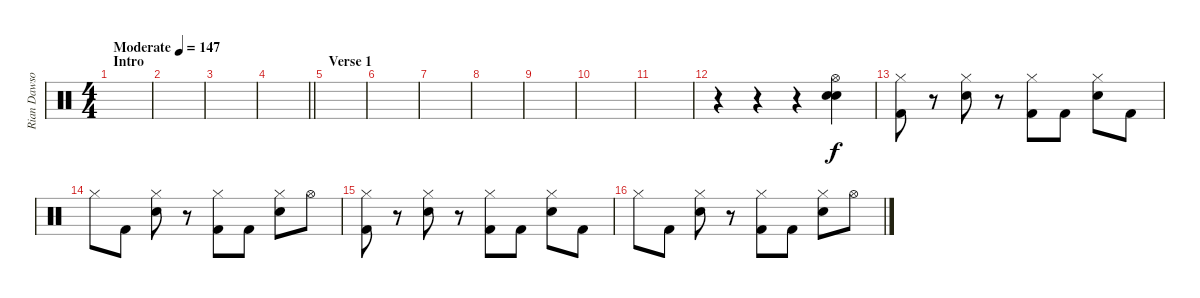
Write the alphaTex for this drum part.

\track ("Rian Dawson (Drums)" "Rian Dawso") {instrument percussion}
\staff {score}
\articulation defaults
\ts (4 4)
\section ("" "Intro")
\tempo (147 "Moderate")
\clef neutral
\ks c
|
|
|
\barLineRight lightlight
|
\section ("" "Verse 1")
|
|
|
|
|
|
|
r.4 r.4 r.4 ("Electric Snare (hit)" "Snare (hit) 2" "Hi-Hat (open)").4 |
("Hi-Hat (closed)" "Kick (hit) 2").8 r.8 ("Electric Snare (hit)" "Hi-Hat (closed)").8 r.8 ("Hi-Hat (closed)" "Kick (hit) 2").8 "Kick (hit) 2".8 ("Electric Snare (hit)" "Hi-Hat (closed)").8 "Kick (hit) 2".8 |
"Hi-Hat (closed)".8 "Kick (hit) 2".8 ("Electric Snare (hit)" "Hi-Hat (closed)").8 r.8 ("Hi-Hat (closed)" "Kick (hit) 2").8 "Kick (hit) 2".8 ("Electric Snare (hit)" "Hi-Hat (closed)").8 "Hi-Hat (open)".8 |
("Hi-Hat (closed)" "Kick (hit) 2").8 r.8 ("Electric Snare (hit)" "Hi-Hat (closed)").8 r.8 ("Hi-Hat (closed)" "Kick (hit) 2").8 "Kick (hit) 2".8 ("Electric Snare (hit)" "Hi-Hat (closed)").8 "Kick (hit) 2".8 |
"Hi-Hat (closed)".8 "Kick (hit) 2".8 ("Electric Snare (hit)" "Hi-Hat (closed)").8 r.8 ("Hi-Hat (closed)" "Kick (hit) 2").8 "Kick (hit) 2".8 ("Electric Snare (hit)" "Hi-Hat (closed)").8 "Hi-Hat (open)".8
